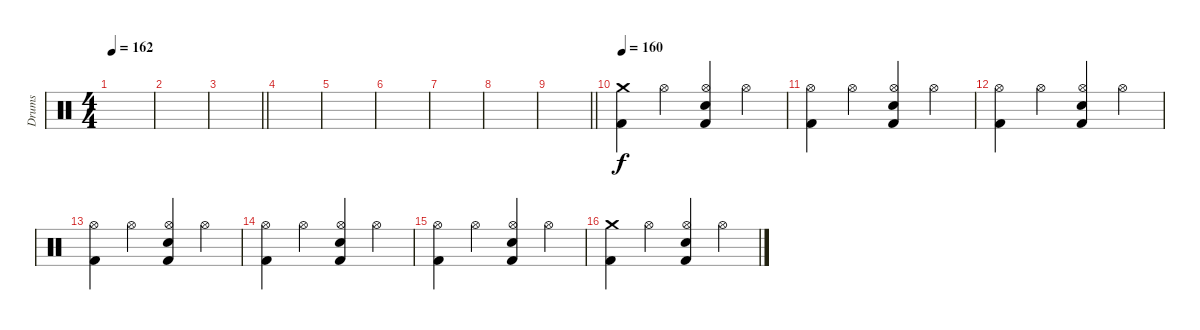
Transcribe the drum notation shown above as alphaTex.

\track ("Drums" "Drums") {instrument percussion}
\staff {score}
\articulation defaults
\ts (4 4)
\tempo 162
\clef neutral
\ks c
|
|
\barLineRight lightlight
|
\section ("" "")
|
|
|
|
|
\barLineRight lightlight
|
\section ("" "")
\tempo 160
("Crash medium (hit)" "Kick (hit) 2").4 "Hi-Hat (open)".4 ("Hi-Hat (open)" "Electric Snare (hit)" "Kick (hit) 2").4 "Hi-Hat (open)".4 |
("Hi-Hat (open)" "Kick (hit) 2").4 "Hi-Hat (open)".4 ("Hi-Hat (open)" "Electric Snare (hit)" "Kick (hit) 2").4 "Hi-Hat (open)".4 |
("Hi-Hat (open)" "Kick (hit) 2").4 "Hi-Hat (open)".4 ("Hi-Hat (open)" "Electric Snare (hit)" "Kick (hit) 2").4 "Hi-Hat (open)".4 |
("Hi-Hat (open)" "Kick (hit) 2").4 "Hi-Hat (open)".4 ("Hi-Hat (open)" "Electric Snare (hit)" "Kick (hit) 2").4 "Hi-Hat (open)".4 |
("Hi-Hat (open)" "Kick (hit) 2").4 "Hi-Hat (open)".4 ("Hi-Hat (open)" "Electric Snare (hit)" "Kick (hit) 2").4 "Hi-Hat (open)".4 |
("Hi-Hat (open)" "Kick (hit) 2").4 "Hi-Hat (open)".4 ("Hi-Hat (open)" "Electric Snare (hit)" "Kick (hit) 2").4 "Hi-Hat (open)".4 |
("Crash medium (hit)" "Kick (hit) 2").4 "Hi-Hat (open)".4 ("Hi-Hat (open)" "Electric Snare (hit)" "Kick (hit) 2").4 "Hi-Hat (open)".4
